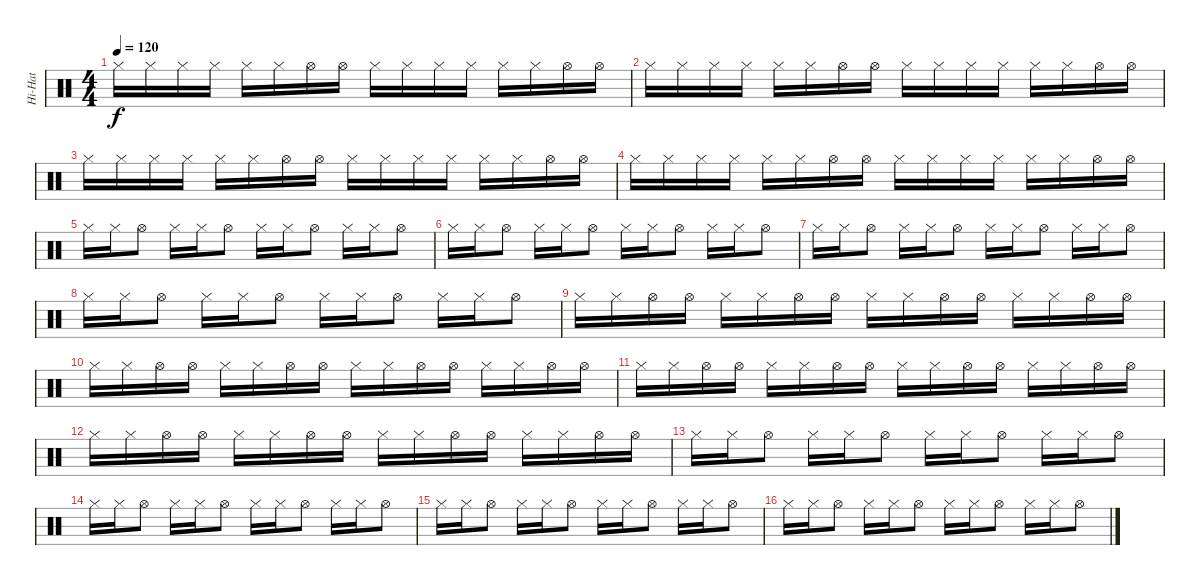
\track ("Hi-Hat" "Hi-Hat") {instrument percussion}
\staff {score}
\articulation defaults
\ts (4 4)
\tempo 120
\clef neutral
\ks c "Hi-Hat (closed)".16{dy f} "Hi-Hat (closed)".16 "Hi-Hat (closed)".16 "Hi-Hat (closed)".16 "Hi-Hat (closed)".16 "Hi-Hat (closed)".16 "Hi-Hat (open)".16 "Hi-Hat (open)".16 "Hi-Hat (closed)".16 "Hi-Hat (closed)".16 "Hi-Hat (closed)".16 "Hi-Hat (closed)".16 "Hi-Hat (closed)".16 "Hi-Hat (closed)".16 "Hi-Hat (open)".16 "Hi-Hat (open)".16
|
"Hi-Hat (closed)".16 "Hi-Hat (closed)".16 "Hi-Hat (closed)".16 "Hi-Hat (closed)".16 "Hi-Hat (closed)".16 "Hi-Hat (closed)".16 "Hi-Hat (open)".16 "Hi-Hat (open)".16 "Hi-Hat (closed)".16 "Hi-Hat (closed)".16 "Hi-Hat (closed)".16 "Hi-Hat (closed)".16 "Hi-Hat (closed)".16 "Hi-Hat (closed)".16 "Hi-Hat (open)".16 "Hi-Hat (open)".16 |
"Hi-Hat (closed)".16 "Hi-Hat (closed)".16 "Hi-Hat (closed)".16 "Hi-Hat (closed)".16 "Hi-Hat (closed)".16 "Hi-Hat (closed)".16 "Hi-Hat (open)".16 "Hi-Hat (open)".16 "Hi-Hat (closed)".16 "Hi-Hat (closed)".16 "Hi-Hat (closed)".16 "Hi-Hat (closed)".16 "Hi-Hat (closed)".16 "Hi-Hat (closed)".16 "Hi-Hat (open)".16 "Hi-Hat (open)".16 |
"Hi-Hat (closed)".16 "Hi-Hat (closed)".16 "Hi-Hat (closed)".16 "Hi-Hat (closed)".16 "Hi-Hat (closed)".16 "Hi-Hat (closed)".16 "Hi-Hat (open)".16 "Hi-Hat (open)".16 "Hi-Hat (closed)".16 "Hi-Hat (closed)".16 "Hi-Hat (closed)".16 "Hi-Hat (closed)".16 "Hi-Hat (closed)".16 "Hi-Hat (closed)".16 "Hi-Hat (open)".16 "Hi-Hat (open)".16 |
"Hi-Hat (closed)".16 "Hi-Hat (closed)".16 "Hi-Hat (open)".8 "Hi-Hat (closed)".16 "Hi-Hat (closed)".16 "Hi-Hat (open)".8 "Hi-Hat (closed)".16 "Hi-Hat (closed)".16 "Hi-Hat (open)".8 "Hi-Hat (closed)".16 "Hi-Hat (closed)".16 "Hi-Hat (open)".8 |
"Hi-Hat (closed)".16 "Hi-Hat (closed)".16 "Hi-Hat (open)".8 "Hi-Hat (closed)".16 "Hi-Hat (closed)".16 "Hi-Hat (open)".8 "Hi-Hat (closed)".16 "Hi-Hat (closed)".16 "Hi-Hat (open)".8 "Hi-Hat (closed)".16 "Hi-Hat (closed)".16 "Hi-Hat (open)".8 |
"Hi-Hat (closed)".16 "Hi-Hat (closed)".16 "Hi-Hat (open)".8 "Hi-Hat (closed)".16 "Hi-Hat (closed)".16 "Hi-Hat (open)".8 "Hi-Hat (closed)".16 "Hi-Hat (closed)".16 "Hi-Hat (open)".8 "Hi-Hat (closed)".16 "Hi-Hat (closed)".16 "Hi-Hat (open)".8 |
"Hi-Hat (closed)".16 "Hi-Hat (closed)".16 "Hi-Hat (open)".8 "Hi-Hat (closed)".16 "Hi-Hat (closed)".16 "Hi-Hat (open)".8 "Hi-Hat (closed)".16 "Hi-Hat (closed)".16 "Hi-Hat (open)".8 "Hi-Hat (closed)".16 "Hi-Hat (closed)".16 "Hi-Hat (open)".8 |
"Hi-Hat (closed)".16 "Hi-Hat (closed)".16 "Hi-Hat (open)".16 "Hi-Hat (open)".16 "Hi-Hat (closed)".16 "Hi-Hat (closed)".16 "Hi-Hat (open)".16 "Hi-Hat (open)".16 "Hi-Hat (closed)".16 "Hi-Hat (closed)".16 "Hi-Hat (open)".16 "Hi-Hat (open)".16 "Hi-Hat (closed)".16 "Hi-Hat (closed)".16 "Hi-Hat (open)".16 "Hi-Hat (open)".16 |
"Hi-Hat (closed)".16 "Hi-Hat (closed)".16 "Hi-Hat (open)".16 "Hi-Hat (open)".16 "Hi-Hat (closed)".16 "Hi-Hat (closed)".16 "Hi-Hat (open)".16 "Hi-Hat (open)".16 "Hi-Hat (closed)".16 "Hi-Hat (closed)".16 "Hi-Hat (open)".16 "Hi-Hat (open)".16 "Hi-Hat (closed)".16 "Hi-Hat (closed)".16 "Hi-Hat (open)".16 "Hi-Hat (open)".16 |
"Hi-Hat (closed)".16 "Hi-Hat (closed)".16 "Hi-Hat (open)".16 "Hi-Hat (open)".16 "Hi-Hat (closed)".16 "Hi-Hat (closed)".16 "Hi-Hat (open)".16 "Hi-Hat (open)".16 "Hi-Hat (closed)".16 "Hi-Hat (closed)".16 "Hi-Hat (open)".16 "Hi-Hat (open)".16 "Hi-Hat (closed)".16 "Hi-Hat (closed)".16 "Hi-Hat (open)".16 "Hi-Hat (open)".16 |
"Hi-Hat (closed)".16 "Hi-Hat (closed)".16 "Hi-Hat (open)".16 "Hi-Hat (open)".16 "Hi-Hat (closed)".16 "Hi-Hat (closed)".16 "Hi-Hat (open)".16 "Hi-Hat (open)".16 "Hi-Hat (closed)".16 "Hi-Hat (closed)".16 "Hi-Hat (open)".16 "Hi-Hat (open)".16 "Hi-Hat (closed)".16 "Hi-Hat (closed)".16 "Hi-Hat (open)".16 "Hi-Hat (open)".16 |
"Hi-Hat (closed)".16 "Hi-Hat (closed)".16 "Hi-Hat (open)".8 "Hi-Hat (closed)".16 "Hi-Hat (closed)".16 "Hi-Hat (open)".8 "Hi-Hat (closed)".16 "Hi-Hat (closed)".16 "Hi-Hat (open)".8 "Hi-Hat (closed)".16 "Hi-Hat (closed)".16 "Hi-Hat (open)".8 |
"Hi-Hat (closed)".16 "Hi-Hat (closed)".16 "Hi-Hat (open)".8 "Hi-Hat (closed)".16 "Hi-Hat (closed)".16 "Hi-Hat (open)".8 "Hi-Hat (closed)".16 "Hi-Hat (closed)".16 "Hi-Hat (open)".8 "Hi-Hat (closed)".16 "Hi-Hat (closed)".16 "Hi-Hat (open)".8 |
"Hi-Hat (closed)".16 "Hi-Hat (closed)".16 "Hi-Hat (open)".8 "Hi-Hat (closed)".16 "Hi-Hat (closed)".16 "Hi-Hat (open)".8 "Hi-Hat (closed)".16 "Hi-Hat (closed)".16 "Hi-Hat (open)".8 "Hi-Hat (closed)".16 "Hi-Hat (closed)".16 "Hi-Hat (open)".8 |
"Hi-Hat (closed)".16 "Hi-Hat (closed)".16 "Hi-Hat (open)".8 "Hi-Hat (closed)".16 "Hi-Hat (closed)".16 "Hi-Hat (open)".8 "Hi-Hat (closed)".16 "Hi-Hat (closed)".16 "Hi-Hat (open)".8 "Hi-Hat (closed)".16 "Hi-Hat (closed)".16 "Hi-Hat (open)".8
